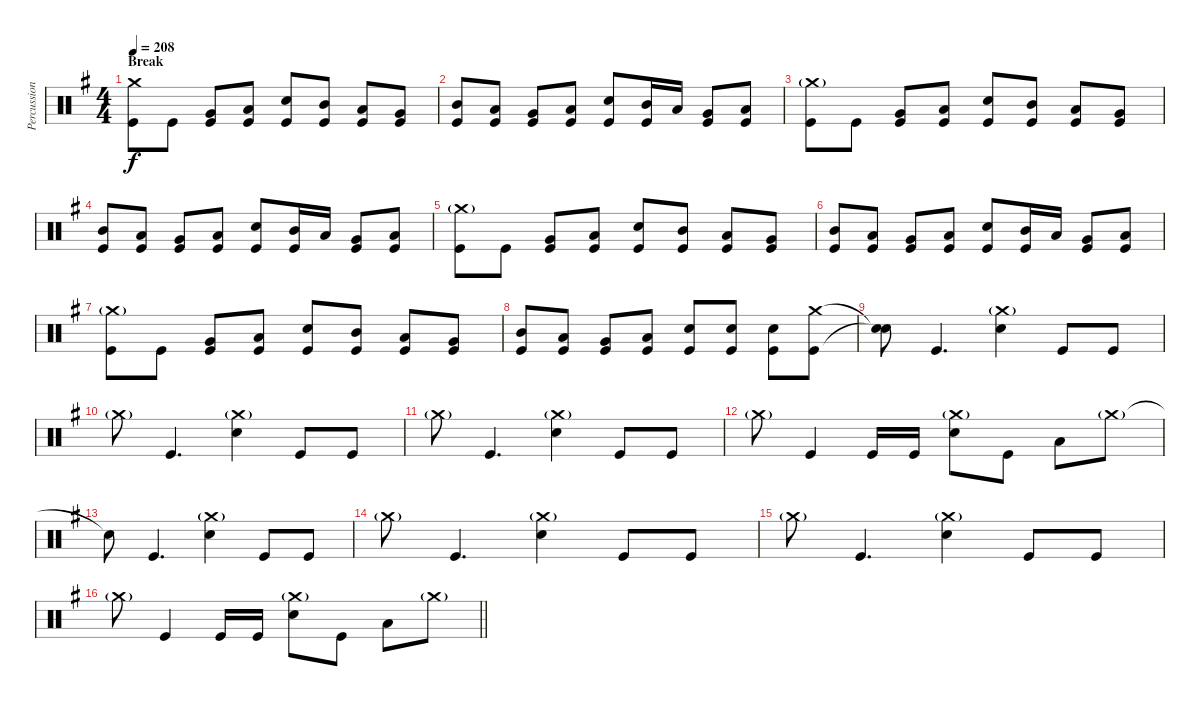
\track ("Percussion" "Percussion") {instrument percussion}
\staff {score}
\articulation defaults
\ts (4 4)
\section ("" "Break")
\tempo 208
\clef neutral
\ks g
("Crash medium (hit)" "Kick (hit)").8{dy f} "Kick (hit)".8 ("Very Low Tom (hit)" "Kick (hit)").8 ("Low Floor Tom (hit)" "Kick (hit)").8 ("Electric Snare (hit)" "Kick (hit)").8 ("Mid Tom (hit)" "Kick (hit)").8 ("Low Tom (hit)" "Kick (hit)").8 ("Very Low Tom (hit)" "Kick (hit)").8 |
("Mid Tom (hit)" "Kick (hit)").8 ("Low Tom (hit)" "Kick (hit)").8 ("Very Low Tom (hit)" "Kick (hit)").8 ("Low Floor Tom (hit)" "Kick (hit)").8 ("Electric Snare (hit)" "Kick (hit)").8 ("Mid Tom (hit)" "Kick (hit)").16 "Low Tom (hit)".16 ("Very Low Tom (hit)" "Kick (hit)").8 ("Low Floor Tom (hit)" "Kick (hit)").8 |
("Crash medium (hit)"{g} "Kick (hit)").8 "Kick (hit)".8 ("Very Low Tom (hit)" "Kick (hit)").8 ("Low Floor Tom (hit)" "Kick (hit)").8 ("Electric Snare (hit)" "Kick (hit)").8 ("Mid Tom (hit)" "Kick (hit)").8 ("Low Tom (hit)" "Kick (hit)").8 ("Very Low Tom (hit)" "Kick (hit)").8 |
("Mid Tom (hit)" "Kick (hit)").8 ("Low Tom (hit)" "Kick (hit)").8 ("Very Low Tom (hit)" "Kick (hit)").8 ("Low Floor Tom (hit)" "Kick (hit)").8 ("Electric Snare (hit)" "Kick (hit)").8 ("Mid Tom (hit)" "Kick (hit)").16 "Low Tom (hit)".16 ("Very Low Tom (hit)" "Kick (hit)").8 ("Low Floor Tom (hit)" "Kick (hit)").8 |
("Crash medium (hit)"{g} "Kick (hit)").8 "Kick (hit)".8 ("Very Low Tom (hit)" "Kick (hit)").8 ("Low Floor Tom (hit)" "Kick (hit)").8 ("Electric Snare (hit)" "Kick (hit)").8 ("Mid Tom (hit)" "Kick (hit)").8 ("Low Tom (hit)" "Kick (hit)").8 ("Very Low Tom (hit)" "Kick (hit)").8 |
("Mid Tom (hit)" "Kick (hit)").8 ("Low Tom (hit)" "Kick (hit)").8 ("Very Low Tom (hit)" "Kick (hit)").8 ("Low Floor Tom (hit)" "Kick (hit)").8 ("Electric Snare (hit)" "Kick (hit)").8 ("Mid Tom (hit)" "Kick (hit)").16 "Low Tom (hit)".16 ("Very Low Tom (hit)" "Kick (hit)").8 ("Low Floor Tom (hit)" "Kick (hit)").8 |
("Crash medium (hit)"{g} "Kick (hit)").8 "Kick (hit)".8 ("Very Low Tom (hit)" "Kick (hit)").8 ("Low Floor Tom (hit)" "Kick (hit)").8 ("Electric Snare (hit)" "Kick (hit)").8 ("Mid Tom (hit)" "Kick (hit)").8 ("Low Tom (hit)" "Kick (hit)").8 ("Very Low Tom (hit)" "Kick (hit)").8 |
("Mid Tom (hit)" "Kick (hit)").8 ("Low Tom (hit)" "Kick (hit)").8 ("Very Low Tom (hit)" "Kick (hit)").8 ("Low Floor Tom (hit)" "Kick (hit)").8 ("Electric Snare (hit)" "Kick (hit)").8 ("Electric Snare (hit)" "Kick (hit)").8 ("Electric Snare (hit)" "Kick (hit)").8 ("Crash medium (hit)" "Kick (hit)").8 |
("Snare (hit)"{t} "Snare (hit)"{t}).8 "Kick (hit)".4{d} ("Crash medium (hit)"{g} "Electric Snare (hit)").4 "Kick (hit)".8 "Kick (hit)".8 |
"Crash medium (hit)"{g}.8 "Kick (hit)".4{d} ("Crash medium (hit)"{g} "Electric Snare (hit)").4 "Kick (hit)".8 "Kick (hit)".8 |
"Crash medium (hit)"{g}.8 "Kick (hit)".4{d} ("Crash medium (hit)"{g} "Electric Snare (hit)").4 "Kick (hit)".8 "Kick (hit)".8 |
"Crash medium (hit)"{g}.8 "Kick (hit)".4 "Kick (hit)".16 "Kick (hit)".16 ("Crash medium (hit)"{g} "Electric Snare (hit)").8 "Kick (hit)".8 "Low Floor Tom (hit)".8 "Crash medium (hit)"{g}.8 |
"Snare (hit)"{t}.8 "Kick (hit)".4{d} ("Crash medium (hit)"{g} "Electric Snare (hit)").4 "Kick (hit)".8 "Kick (hit)".8 |
"Crash medium (hit)"{g}.8 "Kick (hit)".4{d} ("Crash medium (hit)"{g} "Electric Snare (hit)").4 "Kick (hit)".8 "Kick (hit)".8 |
"Crash medium (hit)"{g}.8 "Kick (hit)".4{d} ("Crash medium (hit)"{g} "Electric Snare (hit)").4 "Kick (hit)".8 "Kick (hit)".8 |
\barLineRight lightlight "Crash medium (hit)"{g}.8 "Kick (hit)".4 "Kick (hit)".16 "Kick (hit)".16
("Crash medium (hit)"{g} "Electric Snare (hit)").8 "Kick (hit)".8 "Low Floor Tom (hit)".8 "Crash medium (hit)"{g}.8
